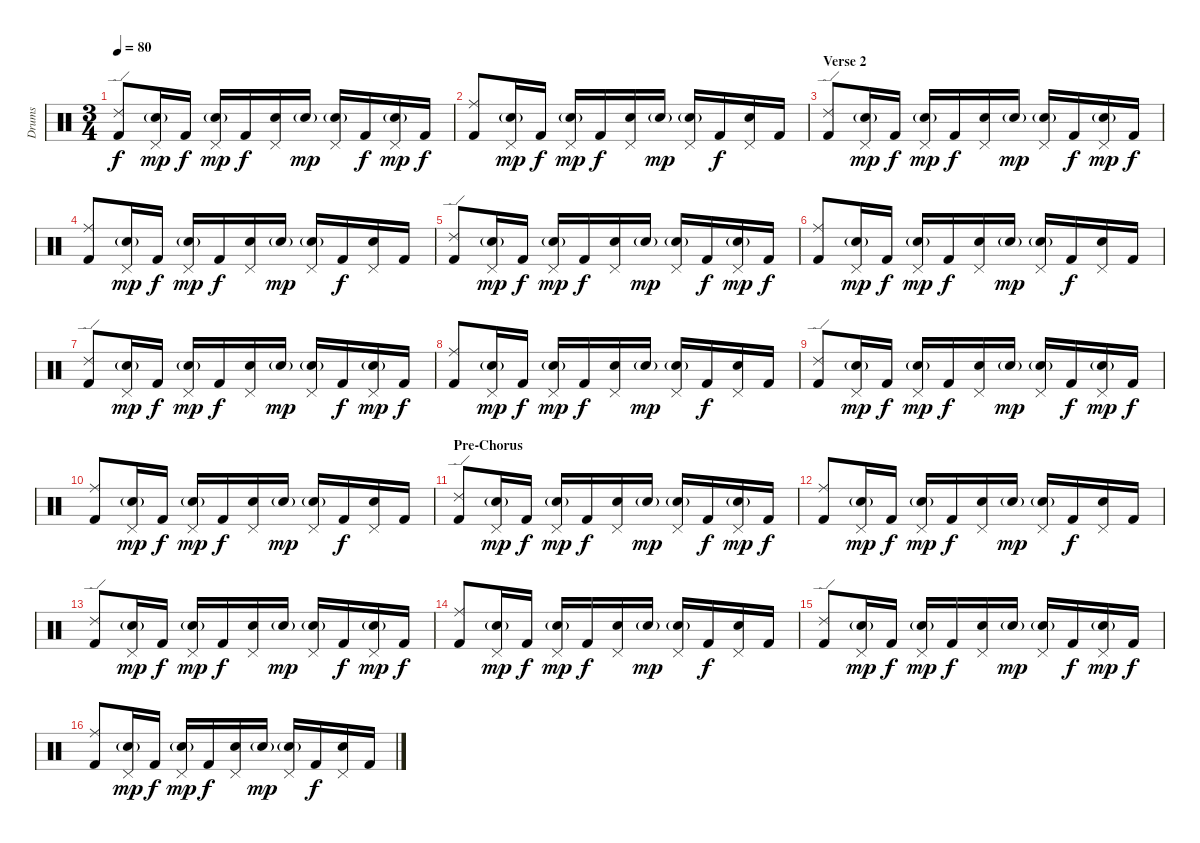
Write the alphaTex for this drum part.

\track ("Drums" "Drums") {instrument percussion}
\staff {score}
\articulation defaults
\ts (3 4)
\tempo 80
\clef neutral
\ks c
("Ride (edge) 2" "Kick (hit) 2").8{dy f} ("Pedal Hi-Hat (hit)" "Snare (hit) 2"{g}).16{dy mp} "Kick (hit) 2".16{dy f} ("Pedal Hi-Hat (hit)" "Snare (hit) 2"{g}).16{dy mp} "Kick (hit) 2".16{dy f} ("Pedal Hi-Hat (hit)" "Snare (hit) 2").16 "Snare (hit) 2"{g}.16{dy mp} ("Pedal Hi-Hat (hit)" "Snare (hit) 2"{g}).16 "Kick (hit) 2".16{dy f} ("Pedal Hi-Hat (hit)" "Snare (hit) 2"{g}).16{dy mp} "Kick (hit) 2".16{dy f} |
("Ride (middle)" "Kick (hit) 2").8 ("Pedal Hi-Hat (hit)" "Snare (hit) 2"{g}).16{dy mp} "Kick (hit) 2".16{dy f} ("Pedal Hi-Hat (hit)" "Snare (hit) 2"{g}).16{dy mp} "Kick (hit) 2".16{dy f} ("Pedal Hi-Hat (hit)" "Snare (hit) 2").16 "Snare (hit) 2"{g}.16{dy mp} ("Pedal Hi-Hat (hit)" "Snare (hit) 2"{g}).16 "Kick (hit) 2".16{dy f} ("Pedal Hi-Hat (hit)" "Snare (hit) 2").16 "Kick (hit) 2".16 |
\section ("" "Verse 2")
("Ride (edge) 2" "Kick (hit) 2").8 ("Pedal Hi-Hat (hit)" "Snare (hit) 2"{g}).16{dy mp} "Kick (hit) 2".16{dy f} ("Pedal Hi-Hat (hit)" "Snare (hit) 2"{g}).16{dy mp} "Kick (hit) 2".16{dy f} ("Pedal Hi-Hat (hit)" "Snare (hit) 2").16 "Snare (hit) 2"{g}.16{dy mp} ("Pedal Hi-Hat (hit)" "Snare (hit) 2"{g}).16 "Kick (hit) 2".16{dy f} ("Pedal Hi-Hat (hit)" "Snare (hit) 2"{g}).16{dy mp} "Kick (hit) 2".16{dy f} |
("Ride (middle)" "Kick (hit) 2").8 ("Pedal Hi-Hat (hit)" "Snare (hit) 2"{g}).16{dy mp} "Kick (hit) 2".16{dy f} ("Pedal Hi-Hat (hit)" "Snare (hit) 2"{g}).16{dy mp} "Kick (hit) 2".16{dy f} ("Pedal Hi-Hat (hit)" "Snare (hit) 2").16 "Snare (hit) 2"{g}.16{dy mp} ("Pedal Hi-Hat (hit)" "Snare (hit) 2"{g}).16 "Kick (hit) 2".16{dy f} ("Pedal Hi-Hat (hit)" "Snare (hit) 2").16 "Kick (hit) 2".16 |
("Ride (edge) 2" "Kick (hit) 2").8 ("Pedal Hi-Hat (hit)" "Snare (hit) 2"{g}).16{dy mp} "Kick (hit) 2".16{dy f} ("Pedal Hi-Hat (hit)" "Snare (hit) 2"{g}).16{dy mp} "Kick (hit) 2".16{dy f} ("Pedal Hi-Hat (hit)" "Snare (hit) 2").16 "Snare (hit) 2"{g}.16{dy mp} ("Pedal Hi-Hat (hit)" "Snare (hit) 2"{g}).16 "Kick (hit) 2".16{dy f} ("Pedal Hi-Hat (hit)" "Snare (hit) 2"{g}).16{dy mp} "Kick (hit) 2".16{dy f} |
("Ride (middle)" "Kick (hit) 2").8 ("Pedal Hi-Hat (hit)" "Snare (hit) 2"{g}).16{dy mp} "Kick (hit) 2".16{dy f} ("Pedal Hi-Hat (hit)" "Snare (hit) 2"{g}).16{dy mp} "Kick (hit) 2".16{dy f} ("Pedal Hi-Hat (hit)" "Snare (hit) 2").16 "Snare (hit) 2"{g}.16{dy mp} ("Pedal Hi-Hat (hit)" "Snare (hit) 2"{g}).16 "Kick (hit) 2".16{dy f} ("Pedal Hi-Hat (hit)" "Snare (hit) 2").16 "Kick (hit) 2".16 |
("Ride (edge) 2" "Kick (hit) 2").8 ("Pedal Hi-Hat (hit)" "Snare (hit) 2"{g}).16{dy mp} "Kick (hit) 2".16{dy f} ("Pedal Hi-Hat (hit)" "Snare (hit) 2"{g}).16{dy mp} "Kick (hit) 2".16{dy f} ("Pedal Hi-Hat (hit)" "Snare (hit) 2").16 "Snare (hit) 2"{g}.16{dy mp} ("Pedal Hi-Hat (hit)" "Snare (hit) 2"{g}).16 "Kick (hit) 2".16{dy f} ("Pedal Hi-Hat (hit)" "Snare (hit) 2"{g}).16{dy mp} "Kick (hit) 2".16{dy f} |
("Ride (middle)" "Kick (hit) 2").8 ("Pedal Hi-Hat (hit)" "Snare (hit) 2"{g}).16{dy mp} "Kick (hit) 2".16{dy f} ("Pedal Hi-Hat (hit)" "Snare (hit) 2"{g}).16{dy mp} "Kick (hit) 2".16{dy f} ("Pedal Hi-Hat (hit)" "Snare (hit) 2").16 "Snare (hit) 2"{g}.16{dy mp} ("Pedal Hi-Hat (hit)" "Snare (hit) 2"{g}).16 "Kick (hit) 2".16{dy f} ("Pedal Hi-Hat (hit)" "Snare (hit) 2").16 "Kick (hit) 2".16 |
("Ride (edge) 2" "Kick (hit) 2").8 ("Pedal Hi-Hat (hit)" "Snare (hit) 2"{g}).16{dy mp} "Kick (hit) 2".16{dy f} ("Pedal Hi-Hat (hit)" "Snare (hit) 2"{g}).16{dy mp} "Kick (hit) 2".16{dy f} ("Pedal Hi-Hat (hit)" "Snare (hit) 2").16 "Snare (hit) 2"{g}.16{dy mp} ("Pedal Hi-Hat (hit)" "Snare (hit) 2"{g}).16 "Kick (hit) 2".16{dy f} ("Pedal Hi-Hat (hit)" "Snare (hit) 2"{g}).16{dy mp} "Kick (hit) 2".16{dy f} |
("Ride (middle)" "Kick (hit) 2").8 ("Pedal Hi-Hat (hit)" "Snare (hit) 2"{g}).16{dy mp} "Kick (hit) 2".16{dy f} ("Pedal Hi-Hat (hit)" "Snare (hit) 2"{g}).16{dy mp} "Kick (hit) 2".16{dy f} ("Pedal Hi-Hat (hit)" "Snare (hit) 2").16 "Snare (hit) 2"{g}.16{dy mp} ("Pedal Hi-Hat (hit)" "Snare (hit) 2"{g}).16 "Kick (hit) 2".16{dy f} ("Pedal Hi-Hat (hit)" "Snare (hit) 2").16 "Kick (hit) 2".16 |
\section ("" "Pre-Chorus")
("Ride (edge) 2" "Kick (hit) 2").8 ("Pedal Hi-Hat (hit)" "Snare (hit) 2"{g}).16{dy mp} "Kick (hit) 2".16{dy f} ("Pedal Hi-Hat (hit)" "Snare (hit) 2"{g}).16{dy mp} "Kick (hit) 2".16{dy f} ("Pedal Hi-Hat (hit)" "Snare (hit) 2").16 "Snare (hit) 2"{g}.16{dy mp} ("Pedal Hi-Hat (hit)" "Snare (hit) 2"{g}).16 "Kick (hit) 2".16{dy f} ("Pedal Hi-Hat (hit)" "Snare (hit) 2"{g}).16{dy mp} "Kick (hit) 2".16{dy f} |
("Ride (middle)" "Kick (hit) 2").8 ("Pedal Hi-Hat (hit)" "Snare (hit) 2"{g}).16{dy mp} "Kick (hit) 2".16{dy f} ("Pedal Hi-Hat (hit)" "Snare (hit) 2"{g}).16{dy mp} "Kick (hit) 2".16{dy f} ("Pedal Hi-Hat (hit)" "Snare (hit) 2").16 "Snare (hit) 2"{g}.16{dy mp} ("Pedal Hi-Hat (hit)" "Snare (hit) 2"{g}).16 "Kick (hit) 2".16{dy f} ("Pedal Hi-Hat (hit)" "Snare (hit) 2").16 "Kick (hit) 2".16 |
("Ride (edge) 2" "Kick (hit) 2").8 ("Pedal Hi-Hat (hit)" "Snare (hit) 2"{g}).16{dy mp} "Kick (hit) 2".16{dy f} ("Pedal Hi-Hat (hit)" "Snare (hit) 2"{g}).16{dy mp} "Kick (hit) 2".16{dy f} ("Pedal Hi-Hat (hit)" "Snare (hit) 2").16 "Snare (hit) 2"{g}.16{dy mp} ("Pedal Hi-Hat (hit)" "Snare (hit) 2"{g}).16 "Kick (hit) 2".16{dy f} ("Pedal Hi-Hat (hit)" "Snare (hit) 2"{g}).16{dy mp} "Kick (hit) 2".16{dy f} |
("Ride (middle)" "Kick (hit) 2").8 ("Pedal Hi-Hat (hit)" "Snare (hit) 2"{g}).16{dy mp} "Kick (hit) 2".16{dy f} ("Pedal Hi-Hat (hit)" "Snare (hit) 2"{g}).16{dy mp} "Kick (hit) 2".16{dy f} ("Pedal Hi-Hat (hit)" "Snare (hit) 2").16 "Snare (hit) 2"{g}.16{dy mp} ("Pedal Hi-Hat (hit)" "Snare (hit) 2"{g}).16 "Kick (hit) 2".16{dy f} ("Pedal Hi-Hat (hit)" "Snare (hit) 2").16 "Kick (hit) 2".16 |
("Ride (edge) 2" "Kick (hit) 2").8 ("Pedal Hi-Hat (hit)" "Snare (hit) 2"{g}).16{dy mp} "Kick (hit) 2".16{dy f} ("Pedal Hi-Hat (hit)" "Snare (hit) 2"{g}).16{dy mp} "Kick (hit) 2".16{dy f} ("Pedal Hi-Hat (hit)" "Snare (hit) 2").16 "Snare (hit) 2"{g}.16{dy mp} ("Pedal Hi-Hat (hit)" "Snare (hit) 2"{g}).16 "Kick (hit) 2".16{dy f} ("Pedal Hi-Hat (hit)" "Snare (hit) 2"{g}).16{dy mp} "Kick (hit) 2".16{dy f} |
("Ride (middle)" "Kick (hit) 2").8 ("Pedal Hi-Hat (hit)" "Snare (hit) 2"{g}).16{dy mp} "Kick (hit) 2".16{dy f} ("Pedal Hi-Hat (hit)" "Snare (hit) 2"{g}).16{dy mp} "Kick (hit) 2".16{dy f} ("Pedal Hi-Hat (hit)" "Snare (hit) 2").16 "Snare (hit) 2"{g}.16{dy mp} ("Pedal Hi-Hat (hit)" "Snare (hit) 2"{g}).16 "Kick (hit) 2".16{dy f} ("Pedal Hi-Hat (hit)" "Snare (hit) 2").16 "Kick (hit) 2".16
